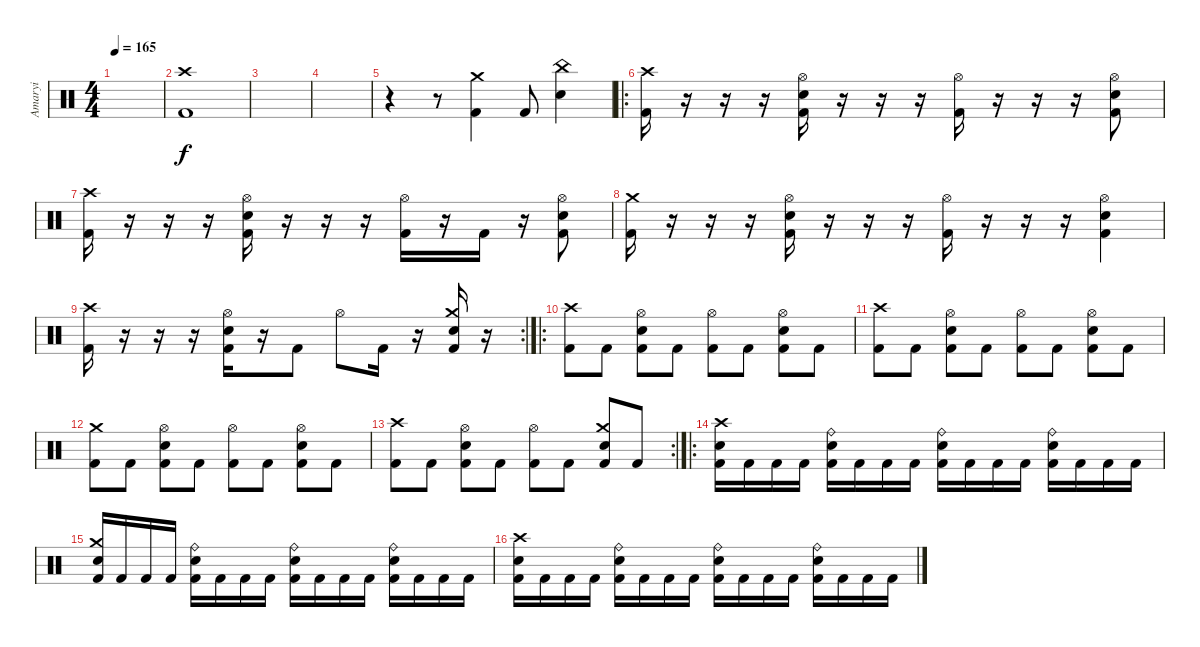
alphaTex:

\track ("Amaryi" "Amaryi") {instrument percussion}
\staff {score}
\articulation defaults
\ts (4 4)
\tempo 165
\clef neutral
\ks c
|
("Crash high (hit)" "Kick (hit) 2").1 |
|
|
r.4 r.8 ("Crash medium (hit)" "Kick (hit) 2").4 "Kick (hit) 2".8 ("China (hit)" "Electric Snare (hit)").4 |
\ro
("Crash high (hit)" "Kick (hit) 2").16 r.16 r.16 r.16 ("Hi-Hat (open)" "Electric Snare (hit)" "Kick (hit) 2").16 r.16 r.16 r.16 ("Hi-Hat (open)" "Kick (hit) 2").16 r.16 r.16 r.16 ("Hi-Hat (open)" "Electric Snare (hit)" "Kick (hit) 2").8 |
("Crash high (hit)" "Kick (hit) 2").16 r.16 r.16 r.16 ("Hi-Hat (open)" "Electric Snare (hit)" "Kick (hit) 2").16 r.16 r.16 r.16 ("Hi-Hat (open)" "Kick (hit) 2").16 r.16 "Kick (hit) 2".16 r.16 ("Hi-Hat (open)" "Electric Snare (hit)" "Kick (hit) 2").8 |
("Crash medium (hit)" "Kick (hit) 2").16 r.16 r.16 r.16 ("Hi-Hat (open)" "Electric Snare (hit)" "Kick (hit) 2").16 r.16 r.16 r.16 ("Hi-Hat (open)" "Kick (hit) 2").16 r.16 r.16 r.16 ("Hi-Hat (open)" "Electric Snare (hit)" "Kick (hit) 2").4 |
\rc 2
("Crash high (hit)" "Kick (hit) 2").16 r.16 r.16 r.16 ("Hi-Hat (open)" "Electric Snare (hit)" "Kick (hit) 2").16 r.16 "Kick (hit) 2".8 "Hi-Hat (open)".8 "Kick (hit) 2".16 r.16 ("Crash medium (hit)" "Electric Snare (hit)" "Kick (hit) 2").16 r.16 |
\ro
("Crash high (hit)" "Kick (hit) 2").8 "Kick (hit) 2".8 ("Hi-Hat (open)" "Electric Snare (hit)" "Kick (hit) 2").8 "Kick (hit) 2".8 ("Hi-Hat (open)" "Kick (hit) 2").8 "Kick (hit) 2".8 ("Hi-Hat (open)" "Electric Snare (hit)" "Kick (hit) 2").8 "Kick (hit) 2".8 |
("Crash high (hit)" "Kick (hit) 2").8 "Kick (hit) 2".8 ("Hi-Hat (open)" "Electric Snare (hit)" "Kick (hit) 2").8 "Kick (hit) 2".8 ("Hi-Hat (open)" "Kick (hit) 2").8 "Kick (hit) 2".8 ("Hi-Hat (open)" "Electric Snare (hit)" "Kick (hit) 2").8 "Kick (hit) 2".8 |
("Crash medium (hit)" "Kick (hit) 2").8 "Kick (hit) 2".8 ("Hi-Hat (open)" "Electric Snare (hit)" "Kick (hit) 2").8 "Kick (hit) 2".8 ("Hi-Hat (open)" "Kick (hit) 2").8 "Kick (hit) 2".8 ("Hi-Hat (open)" "Electric Snare (hit)" "Kick (hit) 2").8 "Kick (hit) 2".8 |
\rc 2
("Crash high (hit)" "Kick (hit) 2").8 "Kick (hit) 2".8 ("Hi-Hat (open)" "Electric Snare (hit)" "Kick (hit) 2").8 "Kick (hit) 2".8 ("Hi-Hat (open)" "Kick (hit) 2").8 "Kick (hit) 2".8 ("Crash medium (hit)" "Electric Snare (hit)" "Kick (hit) 2").8 "Kick (hit) 2".8 |
\ro
("Crash high (hit)" "Electric Snare (hit)" "Kick (hit) 2").16 "Kick (hit) 2".16 "Kick (hit) 2".16 "Kick (hit) 2".16 ("Ride (bell)" "Electric Snare (hit)" "Kick (hit) 2").16 "Kick (hit) 2".16 "Kick (hit) 2".16 "Kick (hit) 2".16 ("Ride (bell)" "Electric Snare (hit)" "Kick (hit) 2").16 "Kick (hit) 2".16 "Kick (hit) 2".16 "Kick (hit) 2".16 ("Ride (bell)" "Electric Snare (hit)" "Kick (hit) 2").16 "Kick (hit) 2".16 "Kick (hit) 2".16 "Kick (hit) 2".16 |
("Crash medium (hit)" "Electric Snare (hit)" "Kick (hit) 2").16 "Kick (hit) 2".16 "Kick (hit) 2".16 "Kick (hit) 2".16 ("Ride (bell)" "Electric Snare (hit)" "Kick (hit) 2").16 "Kick (hit) 2".16 "Kick (hit) 2".16 "Kick (hit) 2".16 ("Ride (bell)" "Electric Snare (hit)" "Kick (hit) 2").16 "Kick (hit) 2".16 "Kick (hit) 2".16 "Kick (hit) 2".16 ("Ride (bell)" "Electric Snare (hit)" "Kick (hit) 2").16 "Kick (hit) 2".16 "Kick (hit) 2".16 "Kick (hit) 2".16 |
("Crash high (hit)" "Electric Snare (hit)" "Kick (hit) 2").16 "Kick (hit) 2".16 "Kick (hit) 2".16 "Kick (hit) 2".16 ("Ride (bell)" "Electric Snare (hit)" "Kick (hit) 2").16 "Kick (hit) 2".16 "Kick (hit) 2".16 "Kick (hit) 2".16 ("Ride (bell)" "Electric Snare (hit)" "Kick (hit) 2").16 "Kick (hit) 2".16 "Kick (hit) 2".16 "Kick (hit) 2".16 ("Ride (bell)" "Electric Snare (hit)" "Kick (hit) 2").16 "Kick (hit) 2".16 "Kick (hit) 2".16 "Kick (hit) 2".16
